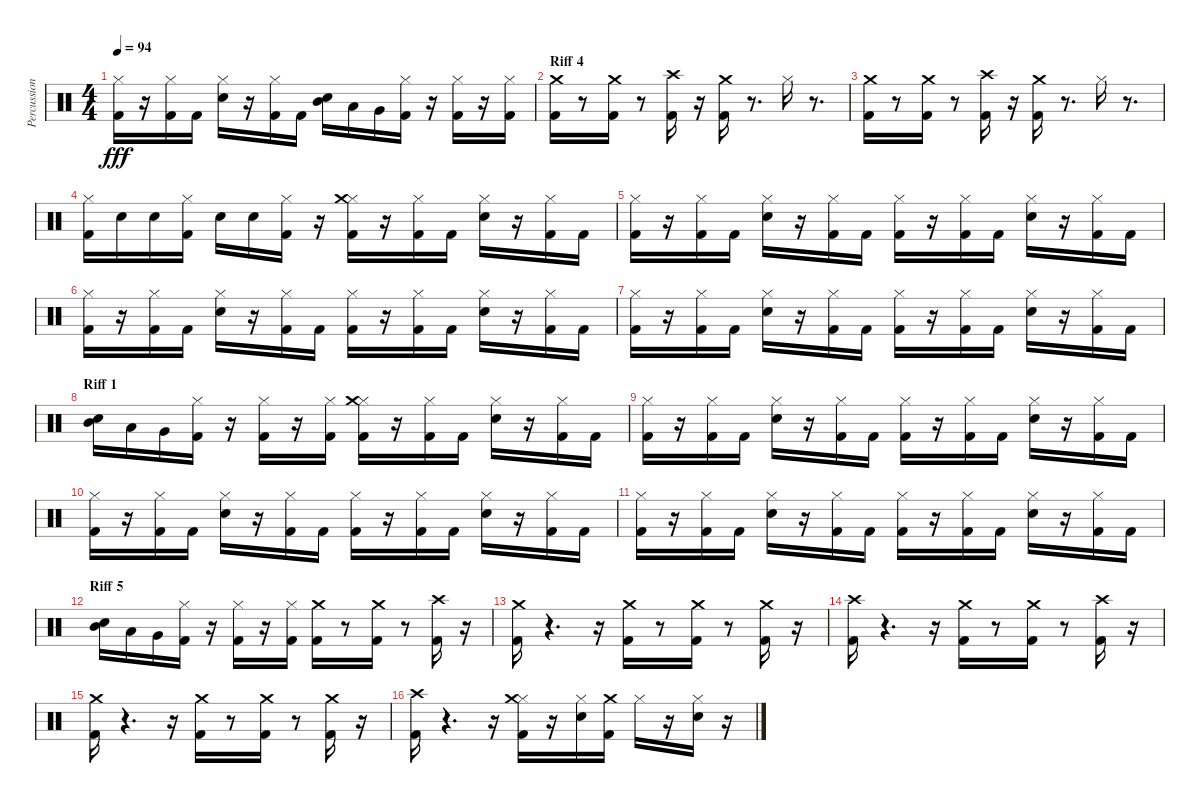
\track ("Percussions" "Percussion") {instrument percussion}
\staff {score}
\articulation defaults
\ts (4 4)
\tempo 94
\clef neutral
\ks c
("Kick (hit) 2" "Hi-Hat (closed)").16{dy fff} r.16 ("Kick (hit) 2" "Hi-Hat (closed)").16 "Kick (hit) 2".16 ("Electric Snare (hit)" "Hi-Hat (closed)").16 r.16 ("Kick (hit) 2" "Hi-Hat (closed)").16 "Kick (hit) 2".16 ("Electric Snare (hit)" "Mid Tom (hit)").16 "Low Tom (hit)".16 "Very Low Tom (hit)".16 ("Kick (hit) 2" "Hi-Hat (closed)").16 r.16 ("Kick (hit) 2" "Hi-Hat (closed)").16 r.16 ("Kick (hit) 2" "Hi-Hat (closed)").16 |
\section ("" "Riff 4")
("Kick (hit) 2" "Crash medium (hit)").16 r.8 ("Kick (hit) 2" "Crash medium (hit)").16 r.8 ("Kick (hit) 2" "Crash high (hit)").16 r.16 ("Kick (hit) 2" "Crash medium (hit)").16 r.8{d} "Hi-Hat (closed)".16 r.8{d} |
("Kick (hit) 2" "Crash medium (hit)").16 r.8 ("Kick (hit) 2" "Crash medium (hit)").16 r.8 ("Kick (hit) 2" "Crash high (hit)").16 r.16 ("Kick (hit) 2" "Crash medium (hit)").16 r.8{d} "Hi-Hat (closed)".16 r.8{d} |
("Kick (hit) 2" "Hi-Hat (closed)").16 "Electric Snare (hit)".16 "Electric Snare (hit)".16 ("Kick (hit) 2" "Hi-Hat (closed)").16 "Electric Snare (hit)".16 "Electric Snare (hit)".16 ("Kick (hit) 2" "Hi-Hat (closed)").16 r.16 ("Kick (hit) 2" "Hi-Hat (closed)" "Crash medium (hit)").16 r.16 ("Kick (hit) 2" "Hi-Hat (closed)").16 "Kick (hit) 2".16 ("Electric Snare (hit)" "Hi-Hat (closed)").16 r.16 ("Kick (hit) 2" "Hi-Hat (closed)").16 "Kick (hit) 2".16 |
("Kick (hit) 2" "Hi-Hat (closed)").16 r.16 ("Kick (hit) 2" "Hi-Hat (closed)").16 "Kick (hit) 2".16 ("Electric Snare (hit)" "Hi-Hat (closed)").16 r.16 ("Kick (hit) 2" "Hi-Hat (closed)").16 "Kick (hit) 2".16 ("Kick (hit) 2" "Hi-Hat (closed)").16 r.16 ("Kick (hit) 2" "Hi-Hat (closed)").16 "Kick (hit) 2".16 ("Electric Snare (hit)" "Hi-Hat (closed)").16 r.16 ("Kick (hit) 2" "Hi-Hat (closed)").16 "Kick (hit) 2".16 |
("Kick (hit) 2" "Hi-Hat (closed)").16 r.16 ("Kick (hit) 2" "Hi-Hat (closed)").16 "Kick (hit) 2".16 ("Electric Snare (hit)" "Hi-Hat (closed)").16 r.16 ("Kick (hit) 2" "Hi-Hat (closed)").16 "Kick (hit) 2".16 ("Kick (hit) 2" "Hi-Hat (closed)").16 r.16 ("Kick (hit) 2" "Hi-Hat (closed)").16 "Kick (hit) 2".16 ("Electric Snare (hit)" "Hi-Hat (closed)").16 r.16 ("Kick (hit) 2" "Hi-Hat (closed)").16 "Kick (hit) 2".16 |
("Kick (hit) 2" "Hi-Hat (closed)").16 r.16 ("Kick (hit) 2" "Hi-Hat (closed)").16 "Kick (hit) 2".16 ("Electric Snare (hit)" "Hi-Hat (closed)").16 r.16 ("Kick (hit) 2" "Hi-Hat (closed)").16 "Kick (hit) 2".16 ("Kick (hit) 2" "Hi-Hat (closed)").16 r.16 ("Kick (hit) 2" "Hi-Hat (closed)").16 "Kick (hit) 2".16 ("Electric Snare (hit)" "Hi-Hat (closed)").16 r.16 ("Kick (hit) 2" "Hi-Hat (closed)").16 "Kick (hit) 2".16 |
\section ("" "Riff 1")
("Electric Snare (hit)" "Mid Tom (hit)").16 "Low Tom (hit)".16 "Very Low Tom (hit)".16 ("Kick (hit) 2" "Hi-Hat (closed)").16 r.16 ("Kick (hit) 2" "Hi-Hat (closed)").16 r.16 ("Kick (hit) 2" "Hi-Hat (closed)").16 ("Kick (hit) 2" "Hi-Hat (closed)" "Crash medium (hit)").16 r.16 ("Kick (hit) 2" "Hi-Hat (closed)").16 "Kick (hit) 2".16 ("Electric Snare (hit)" "Hi-Hat (closed)").16 r.16 ("Kick (hit) 2" "Hi-Hat (closed)").16 "Kick (hit) 2".16 |
("Kick (hit) 2" "Hi-Hat (closed)").16 r.16 ("Kick (hit) 2" "Hi-Hat (closed)").16 "Kick (hit) 2".16 ("Electric Snare (hit)" "Hi-Hat (closed)").16 r.16 ("Kick (hit) 2" "Hi-Hat (closed)").16 "Kick (hit) 2".16 ("Kick (hit) 2" "Hi-Hat (closed)").16 r.16 ("Kick (hit) 2" "Hi-Hat (closed)").16 "Kick (hit) 2".16 ("Electric Snare (hit)" "Hi-Hat (closed)").16 r.16 ("Kick (hit) 2" "Hi-Hat (closed)").16 "Kick (hit) 2".16 |
("Kick (hit) 2" "Hi-Hat (closed)").16 r.16 ("Kick (hit) 2" "Hi-Hat (closed)").16 "Kick (hit) 2".16 ("Electric Snare (hit)" "Hi-Hat (closed)").16 r.16 ("Kick (hit) 2" "Hi-Hat (closed)").16 "Kick (hit) 2".16 ("Kick (hit) 2" "Hi-Hat (closed)").16 r.16 ("Kick (hit) 2" "Hi-Hat (closed)").16 "Kick (hit) 2".16 ("Electric Snare (hit)" "Hi-Hat (closed)").16 r.16 ("Kick (hit) 2" "Hi-Hat (closed)").16 "Kick (hit) 2".16 |
("Kick (hit) 2" "Hi-Hat (closed)").16 r.16 ("Kick (hit) 2" "Hi-Hat (closed)").16 "Kick (hit) 2".16 ("Electric Snare (hit)" "Hi-Hat (closed)").16 r.16 ("Kick (hit) 2" "Hi-Hat (closed)").16 "Kick (hit) 2".16 ("Kick (hit) 2" "Hi-Hat (closed)").16 r.16 ("Kick (hit) 2" "Hi-Hat (closed)").16 "Kick (hit) 2".16 ("Electric Snare (hit)" "Hi-Hat (closed)").16 r.16 ("Kick (hit) 2" "Hi-Hat (closed)").16 "Kick (hit) 2".16 |
\section ("" "Riff 5")
("Electric Snare (hit)" "Mid Tom (hit)").16 "Low Tom (hit)".16 "Very Low Tom (hit)".16 ("Kick (hit) 2" "Hi-Hat (closed)").16 r.16 ("Kick (hit) 2" "Hi-Hat (closed)").16 r.16 ("Kick (hit) 2" "Hi-Hat (closed)").16 ("Kick (hit) 2" "Crash medium (hit)").16 r.8 ("Kick (hit) 2" "Crash medium (hit)").16 r.8 ("Kick (hit) 2" "Crash high (hit)").16 r.16 |
("Kick (hit) 2" "Crash medium (hit)").16 r.4{d} r.16 ("Kick (hit) 2" "Crash medium (hit)").16 r.8 ("Kick (hit) 2" "Crash medium (hit)").16 r.8 ("Kick (hit) 2" "Crash medium (hit)").16 r.16 |
("Kick (hit) 2" "Crash high (hit)").16 r.4{d} r.16 ("Kick (hit) 2" "Crash medium (hit)").16 r.8 ("Kick (hit) 2" "Crash medium (hit)").16 r.8 ("Kick (hit) 2" "Crash high (hit)").16 r.16 |
("Kick (hit) 2" "Crash medium (hit)").16 r.4{d} r.16 ("Kick (hit) 2" "Crash medium (hit)").16 r.8 ("Kick (hit) 2" "Crash medium (hit)").16 r.8 ("Kick (hit) 2" "Crash medium (hit)").16 r.16 |
("Kick (hit) 2" "Crash high (hit)").16 r.4{d} r.16 ("Kick (hit) 2" "Hi-Hat (closed)" "Crash medium (hit)").16 r.16 ("Electric Snare (hit)" "Hi-Hat (closed)").16 ("Kick (hit) 2" "Crash medium (hit)").16 "Hi-Hat (closed)".16 r.16 ("Electric Snare (hit)" "Hi-Hat (closed)").16 r.16
